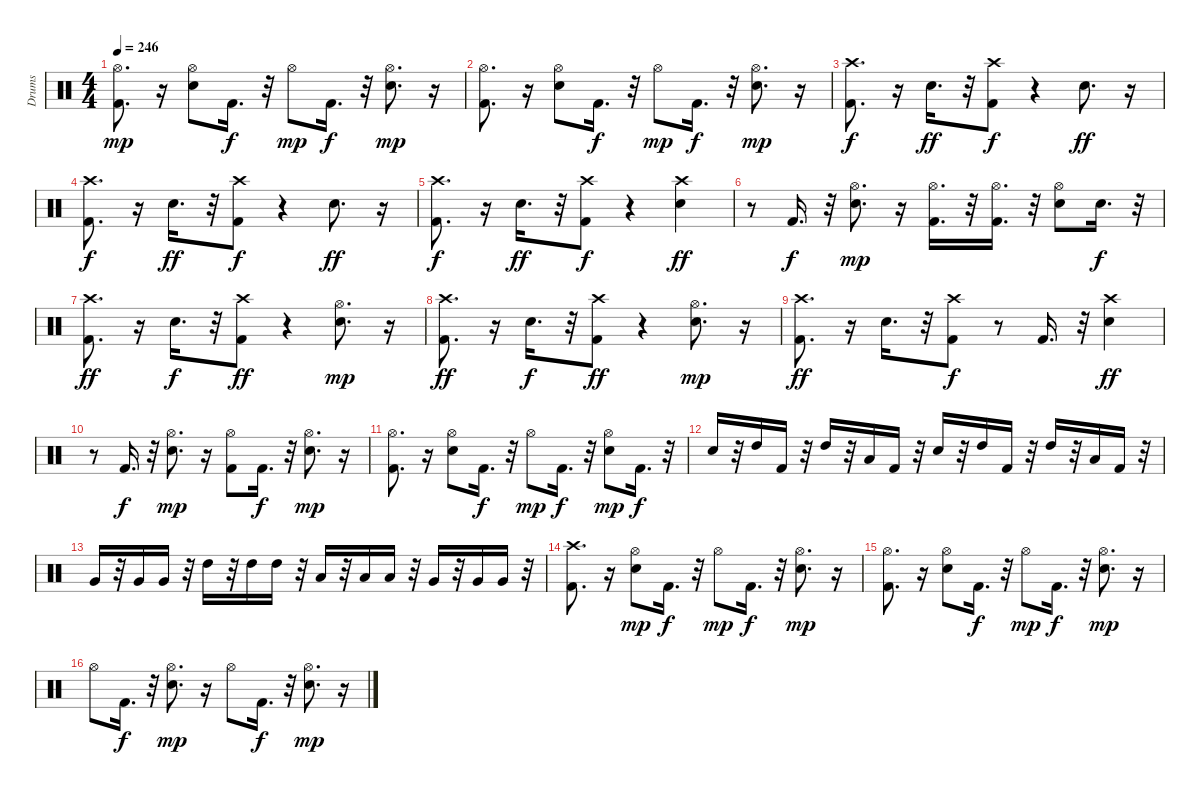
\track ("Drums" "Drums") {instrument percussion}
\staff {score}
\articulation defaults
\ts (4 4)
\tempo 246
\clef neutral
\ks c
("Kick (hit) 2" "Hi-Hat (open)").8{d dy mp} r.16 ("Electric Snare (hit)" "Hi-Hat (open)").8 "Kick (hit) 2".16{d dy f} r.32 "Hi-Hat (open)".8{dy mp} "Kick (hit) 2".16{d dy f} r.32 ("Electric Snare (hit)" "Hi-Hat (open)").8{d dy mp} r.16 |
("Kick (hit) 2" "Hi-Hat (open)").8{d} r.16 ("Electric Snare (hit)" "Hi-Hat (open)").8 "Kick (hit) 2".16{d dy f} r.32 "Hi-Hat (open)".8{dy mp} "Kick (hit) 2".16{d dy f} r.32 ("Electric Snare (hit)" "Hi-Hat (open)").8{d dy mp} r.16 |
("Kick (hit) 2" "Crash high (hit)").8{d dy f} r.16 "Electric Snare (hit)".16{d dy ff} r.32 ("Kick (hit) 2" "Crash high (hit)").8{dy f} r.4 "Electric Snare (hit)".8{d dy ff} r.16 |
("Kick (hit) 2" "Crash high (hit)").8{d dy f} r.16 "Electric Snare (hit)".16{d dy ff} r.32 ("Kick (hit) 2" "Crash high (hit)").8{dy f} r.4 "Electric Snare (hit)".8{d dy ff} r.16 |
("Kick (hit) 2" "Crash high (hit)").8{d dy f} r.16 "Electric Snare (hit)".16{d dy ff} r.32 ("Kick (hit) 2" "Crash high (hit)").8{dy f} r.4 ("Electric Snare (hit)" "Crash high (hit)").4{dy ff} |
r.8 "Kick (hit) 2".16{d dy f} r.32 ("Electric Snare (hit)" "Hi-Hat (open)").8{d dy mp} r.16 ("Hi-Hat (open)" "Kick (hit) 2").16{d} r.32 ("Kick (hit) 2" "Hi-Hat (open)").16{d} r.32 ("Hi-Hat (open)" "Electric Snare (hit)").8 "Electric Snare (hit)".16{d dy f} r.32 |
("Kick (hit) 2" "Crash high (hit)").8{d dy ff} r.16 "Electric Snare (hit)".16{d dy f} r.32 ("Kick (hit) 2" "Crash high (hit)").8{dy ff} r.4 ("Hi-Hat (open)" "Electric Snare (hit)").8{d dy mp} r.16 |
("Kick (hit) 2" "Crash high (hit)").8{d dy ff} r.16 "Electric Snare (hit)".16{d dy f} r.32 ("Kick (hit) 2" "Crash high (hit)").8{dy ff} r.4 ("Hi-Hat (open)" "Electric Snare (hit)").8{d dy mp} r.16 |
("Kick (hit) 2" "Crash high (hit)").8{d dy ff} r.16 "Electric Snare (hit)".16{d} r.32 ("Kick (hit) 2" "Crash high (hit)").8{dy f} r.8 "Kick (hit) 2".16{d} r.32 ("Crash high (hit)" "Electric Snare (hit)").4{dy ff} |
r.8 "Kick (hit) 2".16{d dy f} r.32 ("Electric Snare (hit)" "Hi-Hat (open)").8{d dy mp} r.16 ("Kick (hit) 2" "Hi-Hat (open)").8 "Kick (hit) 2".16{d dy f} r.32 ("Electric Snare (hit)" "Hi-Hat (open)").8{d dy mp} r.16 |
("Kick (hit) 2" "Hi-Hat (open)").8{d} r.16 ("Electric Snare (hit)" "Hi-Hat (open)").8 "Kick (hit) 2".16{d dy f} r.32 "Hi-Hat (open)".8{dy mp} "Kick (hit) 2".16{d dy f} r.32 ("Electric Snare (hit)" "Hi-Hat (open)").8{dy mp} "Kick (hit) 2".16{d dy f} r.32 |
"Electric Snare (hit)".16 r.32 "High Tom (hit)".16 "Kick (hit) 2".16 r.32 "High Tom (hit)".16 r.32 "Low Tom (hit)".16 "Kick (hit) 2".16 r.32 "Electric Snare (hit)".16 r.32 "High Tom (hit)".16 "Kick (hit) 2".16 r.32 "High Tom (hit)".16 r.32 "Low Tom (hit)".16 "Kick (hit) 2".16 r.32 |
"Very Low Tom (hit)".16 r.32 "Very Low Tom (hit)".16 "Very Low Tom (hit)".16 r.32 "High Tom (hit)".16 r.32 "High Tom (hit)".16 "High Tom (hit)".16 r.32 "Low Tom (hit)".16 r.32 "Low Tom (hit)".16 "Low Tom (hit)".16 r.32 "Very Low Tom (hit)".16 r.32 "Very Low Tom (hit)".16 "Very Low Tom (hit)".16 r.32 |
("Kick (hit) 2" "Crash high (hit)").8{d} r.16 ("Electric Snare (hit)" "Hi-Hat (open)").8{dy mp} "Kick (hit) 2".16{d dy f} r.32 "Hi-Hat (open)".8{dy mp} "Kick (hit) 2".16{d dy f} r.32 ("Electric Snare (hit)" "Hi-Hat (open)").8{d dy mp} r.16 |
("Kick (hit) 2" "Hi-Hat (open)").8{d} r.16 ("Electric Snare (hit)" "Hi-Hat (open)").8 "Kick (hit) 2".16{d dy f} r.32 "Hi-Hat (open)".8{dy mp} "Kick (hit) 2".16{d dy f} r.32 ("Electric Snare (hit)" "Hi-Hat (open)").8{d dy mp} r.16 |
"Hi-Hat (open)".8 "Kick (hit) 2".16{d dy f} r.32 ("Electric Snare (hit)" "Hi-Hat (open)").8{d dy mp} r.16 "Hi-Hat (open)".8 "Kick (hit) 2".16{d dy f} r.32 ("Electric Snare (hit)" "Hi-Hat (open)").8{d dy mp} r.16
